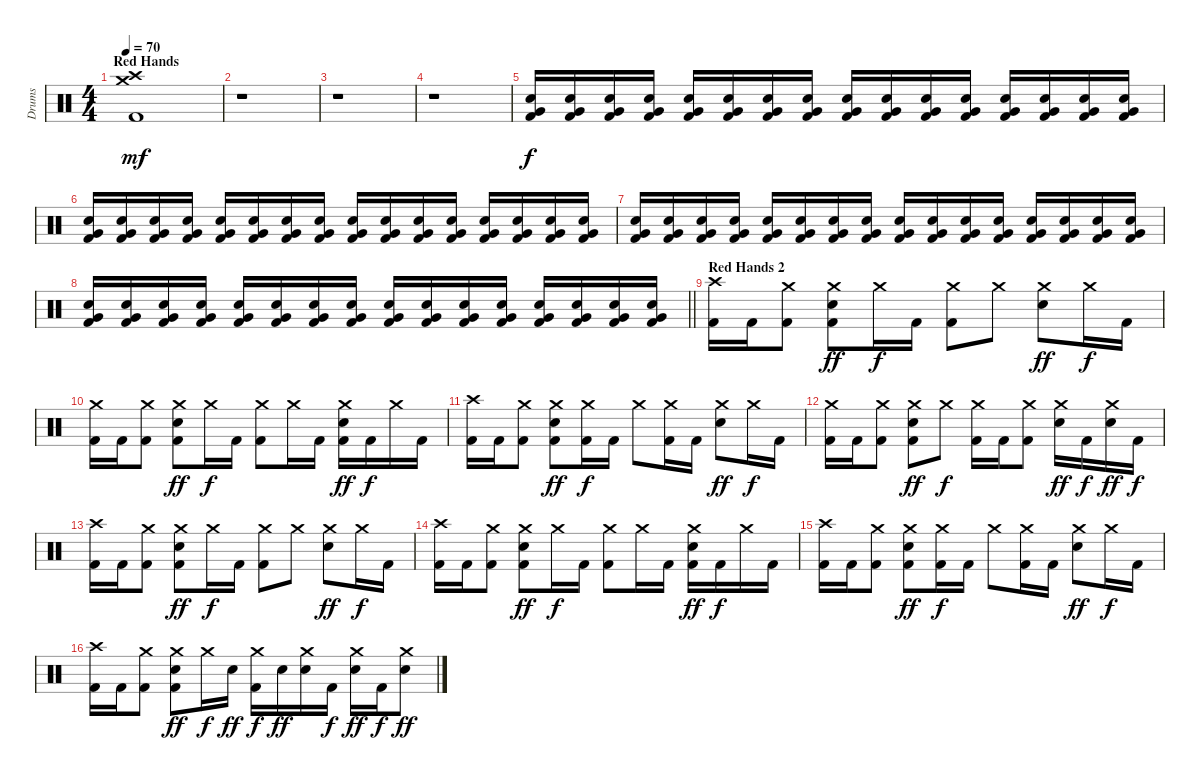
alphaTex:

\track ("Drums" "Drums") {instrument percussion}
\staff {score}
\articulation defaults
\ts (4 4)
\section ("" "Red Hands")
\tempo 70
\clef neutral
\ks c
("Crash high (hit)" "Crash medium (hit)" "Kick (hit) 2").1{dy mf} |
r.1{volume 4} |
r.1 |
r.1 |
("Very Low Tom (hit)" "Electric Snare (hit)" "Kick (hit) 2").16{dy f volume 13} ("Very Low Tom (hit)" "Electric Snare (hit)" "Kick (hit) 2").16 ("Very Low Tom (hit)" "Electric Snare (hit)" "Kick (hit) 2").16 ("Very Low Tom (hit)" "Electric Snare (hit)" "Kick (hit) 2").16 ("Very Low Tom (hit)" "Electric Snare (hit)" "Kick (hit) 2").16 ("Very Low Tom (hit)" "Electric Snare (hit)" "Kick (hit) 2").16 ("Very Low Tom (hit)" "Electric Snare (hit)" "Kick (hit) 2").16 ("Very Low Tom (hit)" "Electric Snare (hit)" "Kick (hit) 2").16 ("Very Low Tom (hit)" "Electric Snare (hit)" "Kick (hit) 2").16 ("Very Low Tom (hit)" "Electric Snare (hit)" "Kick (hit) 2").16 ("Very Low Tom (hit)" "Electric Snare (hit)" "Kick (hit) 2").16 ("Very Low Tom (hit)" "Electric Snare (hit)" "Kick (hit) 2").16 ("Very Low Tom (hit)" "Electric Snare (hit)" "Kick (hit) 2").16 ("Very Low Tom (hit)" "Electric Snare (hit)" "Kick (hit) 2").16 ("Very Low Tom (hit)" "Electric Snare (hit)" "Kick (hit) 2").16 ("Very Low Tom (hit)" "Electric Snare (hit)" "Kick (hit) 2").16 |
("Very Low Tom (hit)" "Electric Snare (hit)" "Kick (hit) 2").16 ("Very Low Tom (hit)" "Electric Snare (hit)" "Kick (hit) 2").16 ("Very Low Tom (hit)" "Electric Snare (hit)" "Kick (hit) 2").16 ("Very Low Tom (hit)" "Electric Snare (hit)" "Kick (hit) 2").16 ("Very Low Tom (hit)" "Electric Snare (hit)" "Kick (hit) 2").16 ("Very Low Tom (hit)" "Electric Snare (hit)" "Kick (hit) 2").16 ("Very Low Tom (hit)" "Electric Snare (hit)" "Kick (hit) 2").16 ("Very Low Tom (hit)" "Electric Snare (hit)" "Kick (hit) 2").16 ("Very Low Tom (hit)" "Electric Snare (hit)" "Kick (hit) 2").16 ("Very Low Tom (hit)" "Electric Snare (hit)" "Kick (hit) 2").16 ("Very Low Tom (hit)" "Electric Snare (hit)" "Kick (hit) 2").16 ("Very Low Tom (hit)" "Electric Snare (hit)" "Kick (hit) 2").16 ("Very Low Tom (hit)" "Electric Snare (hit)" "Kick (hit) 2").16 ("Very Low Tom (hit)" "Electric Snare (hit)" "Kick (hit) 2").16 ("Very Low Tom (hit)" "Electric Snare (hit)" "Kick (hit) 2").16 ("Very Low Tom (hit)" "Electric Snare (hit)" "Kick (hit) 2").16 |
("Very Low Tom (hit)" "Electric Snare (hit)" "Kick (hit) 2").16 ("Very Low Tom (hit)" "Electric Snare (hit)" "Kick (hit) 2").16 ("Very Low Tom (hit)" "Electric Snare (hit)" "Kick (hit) 2").16 ("Very Low Tom (hit)" "Electric Snare (hit)" "Kick (hit) 2").16 ("Very Low Tom (hit)" "Electric Snare (hit)" "Kick (hit) 2").16 ("Very Low Tom (hit)" "Electric Snare (hit)" "Kick (hit) 2").16 ("Very Low Tom (hit)" "Electric Snare (hit)" "Kick (hit) 2").16 ("Very Low Tom (hit)" "Electric Snare (hit)" "Kick (hit) 2").16 ("Very Low Tom (hit)" "Electric Snare (hit)" "Kick (hit) 2").16 ("Very Low Tom (hit)" "Electric Snare (hit)" "Kick (hit) 2").16 ("Very Low Tom (hit)" "Electric Snare (hit)" "Kick (hit) 2").16 ("Very Low Tom (hit)" "Electric Snare (hit)" "Kick (hit) 2").16 ("Very Low Tom (hit)" "Electric Snare (hit)" "Kick (hit) 2").16 ("Very Low Tom (hit)" "Electric Snare (hit)" "Kick (hit) 2").16 ("Very Low Tom (hit)" "Electric Snare (hit)" "Kick (hit) 2").16 ("Very Low Tom (hit)" "Electric Snare (hit)" "Kick (hit) 2").16 |
\barLineRight lightlight
("Very Low Tom (hit)" "Electric Snare (hit)" "Kick (hit) 2").16 ("Very Low Tom (hit)" "Electric Snare (hit)" "Kick (hit) 2").16 ("Very Low Tom (hit)" "Electric Snare (hit)" "Kick (hit) 2").16 ("Very Low Tom (hit)" "Electric Snare (hit)" "Kick (hit) 2").16 ("Very Low Tom (hit)" "Electric Snare (hit)" "Kick (hit) 2").16 ("Very Low Tom (hit)" "Electric Snare (hit)" "Kick (hit) 2").16 ("Very Low Tom (hit)" "Electric Snare (hit)" "Kick (hit) 2").16 ("Very Low Tom (hit)" "Electric Snare (hit)" "Kick (hit) 2").16 ("Very Low Tom (hit)" "Electric Snare (hit)" "Kick (hit) 2").16 ("Very Low Tom (hit)" "Electric Snare (hit)" "Kick (hit) 2").16 ("Very Low Tom (hit)" "Electric Snare (hit)" "Kick (hit) 2").16 ("Very Low Tom (hit)" "Electric Snare (hit)" "Kick (hit) 2").16 ("Very Low Tom (hit)" "Electric Snare (hit)" "Kick (hit) 2").16 ("Very Low Tom (hit)" "Electric Snare (hit)" "Kick (hit) 2").16 ("Very Low Tom (hit)" "Electric Snare (hit)" "Kick (hit) 2").16 ("Very Low Tom (hit)" "Electric Snare (hit)" "Kick (hit) 2").16 |
\section ("" "Red Hands 2")
("Crash high (hit)" "Kick (hit) 2").16 "Kick (hit) 2".16 ("Crash medium (hit)" "Kick (hit) 2").8 ("Crash medium (hit)" "Electric Snare (hit)" "Kick (hit) 2").8{dy ff} "Crash medium (hit)".16{dy f} "Kick (hit) 2".16 ("Crash medium (hit)" "Kick (hit) 2").8 "Crash medium (hit)".8 ("Crash medium (hit)" "Electric Snare (hit)").8{dy ff} "Crash medium (hit)".16{dy f} "Kick (hit) 2".16 |
("Crash medium (hit)" "Kick (hit) 2").16 "Kick (hit) 2".16 ("Crash medium (hit)" "Kick (hit) 2").8 ("Crash medium (hit)" "Electric Snare (hit)" "Kick (hit) 2").8{dy ff} "Crash medium (hit)".16{dy f} "Kick (hit) 2".16 ("Crash medium (hit)" "Kick (hit) 2").8 "Crash medium (hit)".16 "Kick (hit) 2".16 ("Crash medium (hit)" "Electric Snare (hit)" "Kick (hit) 2").16{dy ff} "Kick (hit) 2".16{dy f} "Crash medium (hit)".16 "Kick (hit) 2".16 |
("Crash high (hit)" "Kick (hit) 2").16 "Kick (hit) 2".16 ("Crash medium (hit)" "Kick (hit) 2").8 ("Crash medium (hit)" "Electric Snare (hit)" "Kick (hit) 2").8{dy ff} ("Crash medium (hit)" "Kick (hit) 2").16{dy f} "Kick (hit) 2".16 "Crash medium (hit)".8 ("Crash medium (hit)" "Kick (hit) 2").16 "Kick (hit) 2".16 ("Crash medium (hit)" "Electric Snare (hit)").8{dy ff} "Crash medium (hit)".16{dy f} "Kick (hit) 2".16 |
("Crash medium (hit)" "Kick (hit) 2").16 "Kick (hit) 2".16 ("Crash medium (hit)" "Kick (hit) 2").8 ("Crash medium (hit)" "Electric Snare (hit)" "Kick (hit) 2").8{dy ff} "Crash medium (hit)".8{dy f} ("Crash medium (hit)" "Kick (hit) 2").16 "Kick (hit) 2".16 ("Crash medium (hit)" "Kick (hit) 2").8 ("Crash medium (hit)" "Electric Snare (hit)").16{dy ff} "Kick (hit) 2".16{dy f} ("Crash medium (hit)" "Electric Snare (hit)").16{dy ff} "Kick (hit) 2".16{dy f} |
("Crash high (hit)" "Kick (hit) 2").16 "Kick (hit) 2".16 ("Crash medium (hit)" "Kick (hit) 2").8 ("Crash medium (hit)" "Electric Snare (hit)" "Kick (hit) 2").8{dy ff} "Crash medium (hit)".16{dy f} "Kick (hit) 2".16 ("Crash medium (hit)" "Kick (hit) 2").8 "Crash medium (hit)".8 ("Crash medium (hit)" "Electric Snare (hit)").8{dy ff} "Crash medium (hit)".16{dy f} "Kick (hit) 2".16 |
("Crash high (hit)" "Kick (hit) 2").16 "Kick (hit) 2".16 ("Crash medium (hit)" "Kick (hit) 2").8 ("Crash medium (hit)" "Electric Snare (hit)" "Kick (hit) 2").8{dy ff} "Crash medium (hit)".16{dy f} "Kick (hit) 2".16 ("Crash medium (hit)" "Kick (hit) 2").8 "Crash medium (hit)".16 "Kick (hit) 2".16 ("Crash medium (hit)" "Electric Snare (hit)" "Kick (hit) 2").16{dy ff} "Kick (hit) 2".16{dy f} "Crash medium (hit)".16 "Kick (hit) 2".16 |
("Crash high (hit)" "Kick (hit) 2").16 "Kick (hit) 2".16 ("Crash medium (hit)" "Kick (hit) 2").8 ("Crash medium (hit)" "Electric Snare (hit)" "Kick (hit) 2").8{dy ff} ("Crash medium (hit)" "Kick (hit) 2").16{dy f} "Kick (hit) 2".16 "Crash medium (hit)".8 ("Crash medium (hit)" "Kick (hit) 2").16 "Kick (hit) 2".16 ("Crash medium (hit)" "Electric Snare (hit)").8{dy ff} "Crash medium (hit)".16{dy f} "Kick (hit) 2".16 |
("Crash high (hit)" "Kick (hit) 2").16 "Kick (hit) 2".16 ("Crash medium (hit)" "Kick (hit) 2").8 ("Crash medium (hit)" "Electric Snare (hit)" "Kick (hit) 2").8{dy ff} "Crash medium (hit)".16{dy f} "Electric Snare (hit)".16{dy ff} ("Crash medium (hit)" "Kick (hit) 2").16{dy f} "Electric Snare (hit)".16{dy ff} ("Crash medium (hit)" "Electric Snare (hit)").16 "Kick (hit) 2".16{dy f} ("Crash medium (hit)" "Electric Snare (hit)").16{dy ff} "Kick (hit) 2".16{dy f} ("Crash medium (hit)" "Electric Snare (hit)").8{dy ff}
